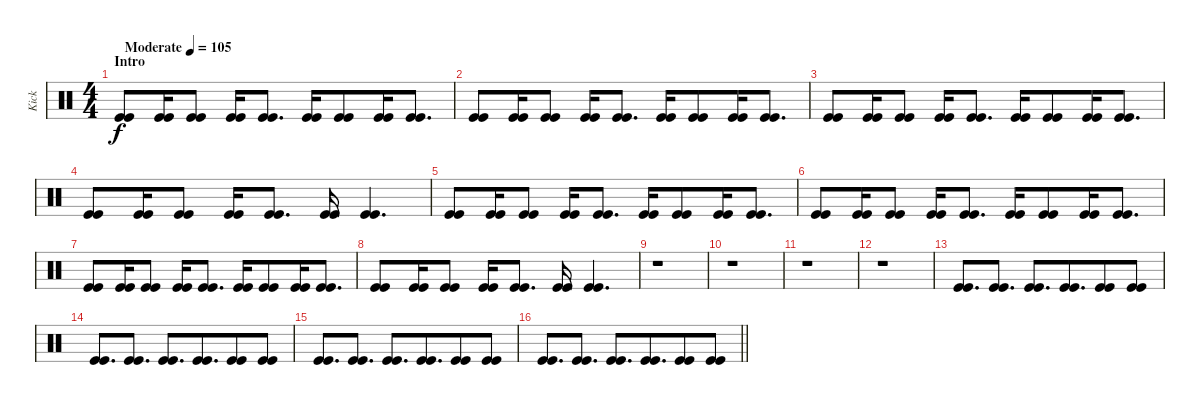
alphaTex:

\track ("Kick" "Kick") {instrument percussion}
\staff {score}
\articulation defaults
\ts (4 4)
\section ("" "Intro")
\tempo (105 "Moderate")
\clef neutral
\ks c
("Kick (hit)" "Kick (hit)").8{dy f} ("Kick (hit)" "Kick (hit)").16{beam merge} ("Kick (hit)" "Kick (hit)").8 ("Kick (hit)" "Kick (hit)").16{beam merge} ("Kick (hit)" "Kick (hit)").8{d} ("Kick (hit)" "Kick (hit)").16 ("Kick (hit)" "Kick (hit)").8{beam merge} ("Kick (hit)" "Kick (hit)").16 ("Kick (hit)" "Kick (hit)").8{d} |
("Kick (hit)" "Kick (hit)").8 ("Kick (hit)" "Kick (hit)").16{beam merge} ("Kick (hit)" "Kick (hit)").8 ("Kick (hit)" "Kick (hit)").16{beam merge} ("Kick (hit)" "Kick (hit)").8{d} ("Kick (hit)" "Kick (hit)").16 ("Kick (hit)" "Kick (hit)").8{beam merge} ("Kick (hit)" "Kick (hit)").16 ("Kick (hit)" "Kick (hit)").8{d} |
("Kick (hit)" "Kick (hit)").8 ("Kick (hit)" "Kick (hit)").16{beam merge} ("Kick (hit)" "Kick (hit)").8 ("Kick (hit)" "Kick (hit)").16{beam merge} ("Kick (hit)" "Kick (hit)").8{d} ("Kick (hit)" "Kick (hit)").16 ("Kick (hit)" "Kick (hit)").8{beam merge} ("Kick (hit)" "Kick (hit)").16 ("Kick (hit)" "Kick (hit)").8{d} |
("Kick (hit)" "Kick (hit)").8 ("Kick (hit)" "Kick (hit)").16{beam merge} ("Kick (hit)" "Kick (hit)").8 ("Kick (hit)" "Kick (hit)").16{beam merge} ("Kick (hit)" "Kick (hit)").8{d} ("Kick (hit)" "Kick (hit)").16 ("Kick (hit)" "Kick (hit)").4{d} |
("Kick (hit)" "Kick (hit)").8 ("Kick (hit)" "Kick (hit)").16{beam merge} ("Kick (hit)" "Kick (hit)").8 ("Kick (hit)" "Kick (hit)").16{beam merge} ("Kick (hit)" "Kick (hit)").8{d} ("Kick (hit)" "Kick (hit)").16 ("Kick (hit)" "Kick (hit)").8{beam merge} ("Kick (hit)" "Kick (hit)").16 ("Kick (hit)" "Kick (hit)").8{d} |
("Kick (hit)" "Kick (hit)").8 ("Kick (hit)" "Kick (hit)").16{beam merge} ("Kick (hit)" "Kick (hit)").8 ("Kick (hit)" "Kick (hit)").16{beam merge} ("Kick (hit)" "Kick (hit)").8{d} ("Kick (hit)" "Kick (hit)").16 ("Kick (hit)" "Kick (hit)").8{beam merge} ("Kick (hit)" "Kick (hit)").16 ("Kick (hit)" "Kick (hit)").8{d} |
("Kick (hit)" "Kick (hit)").8 ("Kick (hit)" "Kick (hit)").16{beam merge} ("Kick (hit)" "Kick (hit)").8 ("Kick (hit)" "Kick (hit)").16{beam merge} ("Kick (hit)" "Kick (hit)").8{d} ("Kick (hit)" "Kick (hit)").16 ("Kick (hit)" "Kick (hit)").8{beam merge} ("Kick (hit)" "Kick (hit)").16 ("Kick (hit)" "Kick (hit)").8{d} |
("Kick (hit)" "Kick (hit)").8 ("Kick (hit)" "Kick (hit)").16{beam merge} ("Kick (hit)" "Kick (hit)").8 ("Kick (hit)" "Kick (hit)").16{beam merge} ("Kick (hit)" "Kick (hit)").8{d} ("Kick (hit)" "Kick (hit)").16 ("Kick (hit)" "Kick (hit)").4{d} |
r.1 |
r.1 |
r.1 |
r.1 |
("Kick (hit)" "Kick (hit)").8{d beam merge} ("Kick (hit)" "Kick (hit)").8{d} ("Kick (hit)" "Kick (hit)").8{d beam merge} ("Kick (hit)" "Kick (hit)").8{d beam merge} ("Kick (hit)" "Kick (hit)").8{beam merge} ("Kick (hit)" "Kick (hit)").8 |
("Kick (hit)" "Kick (hit)").8{d beam merge} ("Kick (hit)" "Kick (hit)").8{d} ("Kick (hit)" "Kick (hit)").8{d beam merge} ("Kick (hit)" "Kick (hit)").8{d beam merge} ("Kick (hit)" "Kick (hit)").8{beam merge} ("Kick (hit)" "Kick (hit)").8 |
("Kick (hit)" "Kick (hit)").8{d beam merge} ("Kick (hit)" "Kick (hit)").8{d} ("Kick (hit)" "Kick (hit)").8{d beam merge} ("Kick (hit)" "Kick (hit)").8{d beam merge} ("Kick (hit)" "Kick (hit)").8{beam merge} ("Kick (hit)" "Kick (hit)").8 |
\barLineRight lightlight
("Kick (hit)" "Kick (hit)").8{d beam merge} ("Kick (hit)" "Kick (hit)").8{d} ("Kick (hit)" "Kick (hit)").8{d beam merge} ("Kick (hit)" "Kick (hit)").8{d beam merge} ("Kick (hit)" "Kick (hit)").8{beam merge} ("Kick (hit)" "Kick (hit)").8
